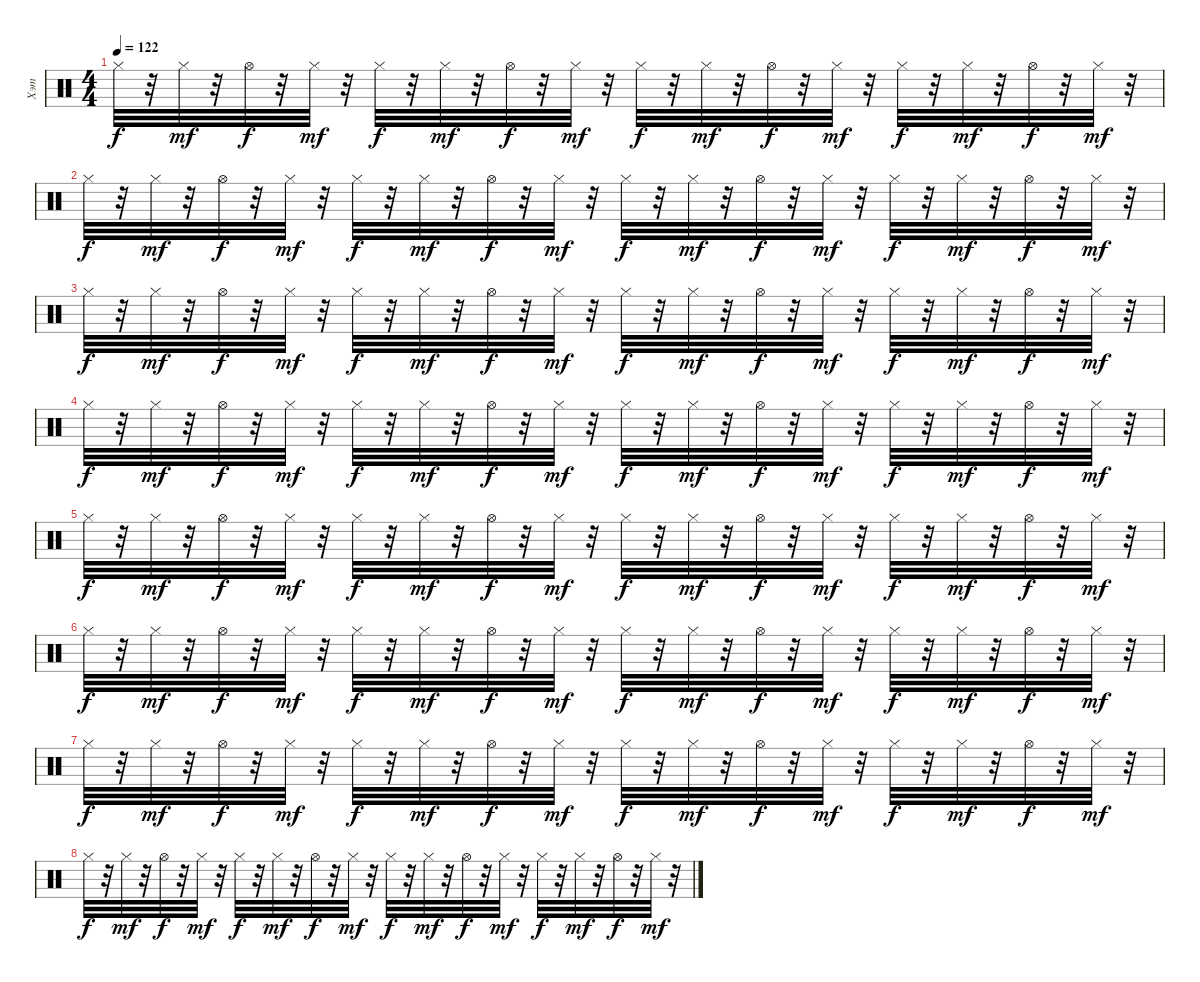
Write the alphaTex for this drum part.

\track ("Хэт" "Хэт") {instrument percussion}
\staff {score}
\articulation defaults
\ts (4 4)
\tempo 122
\clef neutral
\ks c "Hi-Hat (closed)".32{dy f volume 16}
r.32 "Hi-Hat (closed)".32{dy mf volume 16} r.32 "Hi-Hat (open)".32{dy f} r.32 "Hi-Hat (closed)".32{dy mf volume 16} r.32 "Hi-Hat (closed)".32{dy f volume 16} r.32 "Hi-Hat (closed)".32{dy mf volume 15} r.32 "Hi-Hat (open)".32{dy f volume 15} r.32 "Hi-Hat (closed)".32{dy mf volume 15} r.32 "Hi-Hat (closed)".32{dy f volume 15} r.32 "Hi-Hat (closed)".32{dy mf volume 15} r.32 "Hi-Hat (open)".32{dy f volume 15} r.32 "Hi-Hat (closed)".32{dy mf volume 15} r.32 "Hi-Hat (closed)".32{dy f volume 14} r.32 "Hi-Hat (closed)".32{dy mf volume 14} r.32 "Hi-Hat (open)".32{dy f volume 14} r.32 "Hi-Hat (closed)".32{dy mf volume 14} r.32 |
"Hi-Hat (closed)".32{dy f volume 14} r.32 "Hi-Hat (closed)".32{dy mf volume 14} r.32 "Hi-Hat (open)".32{dy f volume 14} r.32 "Hi-Hat (closed)".32{dy mf volume 14} r.32 "Hi-Hat (closed)".32{dy f volume 14} r.32 "Hi-Hat (closed)".32{dy mf volume 13} r.32 "Hi-Hat (open)".32{dy f volume 13} r.32 "Hi-Hat (closed)".32{dy mf volume 13} r.32 "Hi-Hat (closed)".32{dy f volume 13} r.32 "Hi-Hat (closed)".32{dy mf volume 13} r.32 "Hi-Hat (open)".32{dy f volume 13} r.32 "Hi-Hat (closed)".32{dy mf volume 13} r.32 "Hi-Hat (closed)".32{dy f volume 12} r.32 "Hi-Hat (closed)".32{dy mf volume 12} r.32 "Hi-Hat (open)".32{dy f volume 12} r.32 "Hi-Hat (closed)".32{dy mf volume 12} r.32 |
"Hi-Hat (closed)".32{dy f volume 12} r.32 "Hi-Hat (closed)".32{dy mf volume 12} r.32 "Hi-Hat (open)".32{dy f volume 12} r.32 "Hi-Hat (closed)".32{dy mf volume 12} r.32 "Hi-Hat (closed)".32{dy f volume 12} r.32 "Hi-Hat (closed)".32{dy mf volume 11} r.32 "Hi-Hat (open)".32{dy f volume 11} r.32 "Hi-Hat (closed)".32{dy mf volume 11} r.32 "Hi-Hat (closed)".32{dy f volume 11} r.32 "Hi-Hat (closed)".32{dy mf volume 11} r.32 "Hi-Hat (open)".32{dy f volume 11} r.32 "Hi-Hat (closed)".32{dy mf volume 11} r.32 "Hi-Hat (closed)".32{dy f volume 10} r.32 "Hi-Hat (closed)".32{dy mf volume 10} r.32 "Hi-Hat (open)".32{dy f volume 10} r.32 "Hi-Hat (closed)".32{dy mf volume 10} r.32 |
"Hi-Hat (closed)".32{dy f volume 10} r.32 "Hi-Hat (closed)".32{dy mf volume 10} r.32 "Hi-Hat (open)".32{dy f volume 10} r.32 "Hi-Hat (closed)".32{dy mf volume 10} r.32 "Hi-Hat (closed)".32{dy f volume 10} r.32 "Hi-Hat (closed)".32{dy mf volume 9} r.32 "Hi-Hat (open)".32{dy f volume 9} r.32 "Hi-Hat (closed)".32{dy mf volume 9} r.32 "Hi-Hat (closed)".32{dy f volume 9} r.32 "Hi-Hat (closed)".32{dy mf volume 9} r.32 "Hi-Hat (open)".32{dy f volume 9} r.32 "Hi-Hat (closed)".32{dy mf volume 9} r.32 "Hi-Hat (closed)".32{dy f volume 8} r.32 "Hi-Hat (closed)".32{dy mf volume 8} r.32 "Hi-Hat (open)".32{dy f volume 8} r.32 "Hi-Hat (closed)".32{dy mf volume 8} r.32 |
"Hi-Hat (closed)".32{dy f volume 8} r.32 "Hi-Hat (closed)".32{dy mf volume 8} r.32 "Hi-Hat (open)".32{dy f volume 8} r.32 "Hi-Hat (closed)".32{dy mf volume 8} r.32 "Hi-Hat (closed)".32{dy f volume 8} r.32 "Hi-Hat (closed)".32{dy mf volume 7} r.32 "Hi-Hat (open)".32{dy f volume 7} r.32 "Hi-Hat (closed)".32{dy mf volume 7} r.32 "Hi-Hat (closed)".32{dy f volume 7} r.32 "Hi-Hat (closed)".32{dy mf volume 7} r.32 "Hi-Hat (open)".32{dy f volume 7} r.32 "Hi-Hat (closed)".32{dy mf volume 7} r.32 "Hi-Hat (closed)".32{dy f volume 6} r.32 "Hi-Hat (closed)".32{dy mf volume 6} r.32 "Hi-Hat (open)".32{dy f volume 6} r.32 "Hi-Hat (closed)".32{dy mf volume 6} r.32 |
"Hi-Hat (closed)".32{dy f volume 6} r.32 "Hi-Hat (closed)".32{dy mf volume 6} r.32 "Hi-Hat (open)".32{dy f volume 6} r.32 "Hi-Hat (closed)".32{dy mf volume 6} r.32 "Hi-Hat (closed)".32{dy f volume 6} r.32 "Hi-Hat (closed)".32{dy mf volume 5} r.32 "Hi-Hat (open)".32{dy f volume 5} r.32 "Hi-Hat (closed)".32{dy mf volume 5} r.32 "Hi-Hat (closed)".32{dy f volume 5} r.32 "Hi-Hat (closed)".32{dy mf volume 5} r.32 "Hi-Hat (open)".32{dy f volume 5} r.32 "Hi-Hat (closed)".32{dy mf volume 5} r.32 "Hi-Hat (closed)".32{dy f volume 4} r.32 "Hi-Hat (closed)".32{dy mf volume 4} r.32 "Hi-Hat (open)".32{dy f volume 4} r.32 "Hi-Hat (closed)".32{dy mf volume 4} r.32 |
"Hi-Hat (closed)".32{dy f volume 4} r.32 "Hi-Hat (closed)".32{dy mf volume 4} r.32 "Hi-Hat (open)".32{dy f volume 4} r.32 "Hi-Hat (closed)".32{dy mf volume 4} r.32 "Hi-Hat (closed)".32{dy f volume 4} r.32 "Hi-Hat (closed)".32{dy mf volume 3} r.32 "Hi-Hat (open)".32{dy f volume 3} r.32 "Hi-Hat (closed)".32{dy mf volume 3} r.32 "Hi-Hat (closed)".32{dy f volume 3} r.32 "Hi-Hat (closed)".32{dy mf volume 3} r.32 "Hi-Hat (open)".32{dy f volume 3} r.32 "Hi-Hat (closed)".32{dy mf volume 3} r.32 "Hi-Hat (closed)".32{dy f volume 2} r.32 "Hi-Hat (closed)".32{dy mf volume 2} r.32 "Hi-Hat (open)".32{dy f volume 2} r.32 "Hi-Hat (closed)".32{dy mf volume 2} r.32 |
"Hi-Hat (closed)".32{dy f volume 2} r.32 "Hi-Hat (closed)".32{dy mf volume 2} r.32 "Hi-Hat (open)".32{dy f volume 2} r.32 "Hi-Hat (closed)".32{dy mf volume 2} r.32 "Hi-Hat (closed)".32{dy f volume 2} r.32 "Hi-Hat (closed)".32{dy mf volume 1} r.32 "Hi-Hat (open)".32{dy f volume 1} r.32 "Hi-Hat (closed)".32{dy mf volume 1} r.32 "Hi-Hat (closed)".32{dy f volume 1} r.32 "Hi-Hat (closed)".32{dy mf volume 1} r.32 "Hi-Hat (open)".32{dy f volume 1} r.32 "Hi-Hat (closed)".32{dy mf volume 1} r.32 "Hi-Hat (closed)".32{dy f volume 0} r.32 "Hi-Hat (closed)".32{dy mf volume 0} r.32 "Hi-Hat (open)".32{dy f volume 0} r.32 "Hi-Hat (closed)".32{dy mf volume 0} r.32
